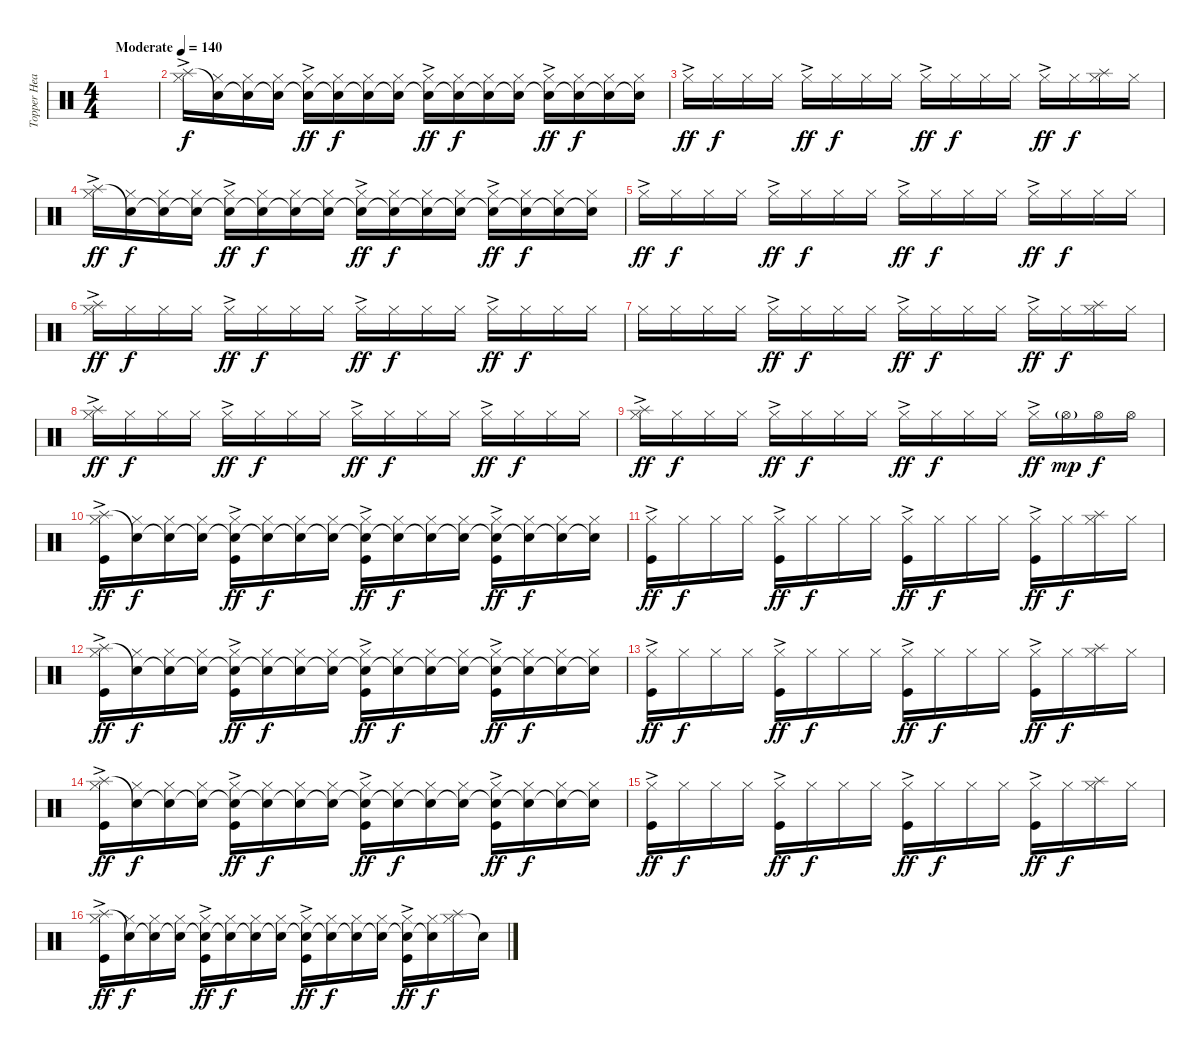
\track ("Topper Headon" "Topper Hea") {instrument percussion}
\staff {score}
\articulation defaults
\ts (4 4)
\tempo (140 "Moderate")
\clef neutral
\ks c
|
("Hi-Hat (closed)"{ac} "Splash (hit)").16 ("Hi-Hat (closed)" "Snare (hit)"{t}).16{dy f} ("Hi-Hat (closed)" "Snare (hit)"{t}).16 ("Hi-Hat (closed)" "Snare (hit)"{t}).16 ("Hi-Hat (closed)"{ac} "Snare (hit)"{t}).16{dy ff} ("Hi-Hat (closed)" "Snare (hit)"{t}).16{dy f} ("Hi-Hat (closed)" "Snare (hit)"{t}).16 ("Hi-Hat (closed)" "Snare (hit)"{t}).16 ("Hi-Hat (closed)"{ac} "Snare (hit)"{t}).16{dy ff} ("Hi-Hat (closed)" "Snare (hit)"{t}).16{dy f} ("Hi-Hat (closed)" "Snare (hit)"{t}).16 ("Hi-Hat (closed)" "Snare (hit)"{t}).16 ("Hi-Hat (closed)"{ac} "Snare (hit)"{t}).16{dy ff} ("Hi-Hat (closed)" "Snare (hit)"{t}).16{dy f} ("Hi-Hat (closed)" "Snare (hit)"{t}).16 ("Hi-Hat (closed)" "Snare (hit)"{t}).16 |
"Hi-Hat (closed)"{ac}.16{dy ff} "Hi-Hat (closed)".16{dy f} "Hi-Hat (closed)".16 "Hi-Hat (closed)".16 "Hi-Hat (closed)"{ac}.16{dy ff} "Hi-Hat (closed)".16{dy f} "Hi-Hat (closed)".16 "Hi-Hat (closed)".16 "Hi-Hat (closed)"{ac}.16{dy ff} "Hi-Hat (closed)".16{dy f} "Hi-Hat (closed)".16 "Hi-Hat (closed)".16 "Hi-Hat (closed)"{ac}.16{dy ff} "Hi-Hat (closed)".16{dy f} ("Hi-Hat (closed)" "Splash (hit)").16 "Hi-Hat (closed)".16 |
("Hi-Hat (closed)"{ac} "Splash (hit)").16{dy ff} ("Hi-Hat (closed)" "Snare (hit)"{t}).16{dy f} ("Hi-Hat (closed)" "Snare (hit)"{t}).16 ("Hi-Hat (closed)" "Snare (hit)"{t}).16 ("Hi-Hat (closed)"{ac} "Snare (hit)"{t}).16{dy ff} ("Hi-Hat (closed)" "Snare (hit)"{t}).16{dy f} ("Hi-Hat (closed)" "Snare (hit)"{t}).16 ("Hi-Hat (closed)" "Snare (hit)"{t}).16 ("Hi-Hat (closed)"{ac} "Snare (hit)"{t}).16{dy ff} ("Hi-Hat (closed)" "Snare (hit)"{t}).16{dy f} ("Hi-Hat (closed)" "Snare (hit)"{t}).16 ("Hi-Hat (closed)" "Snare (hit)"{t}).16 ("Hi-Hat (closed)"{ac} "Snare (hit)"{t}).16{dy ff} ("Hi-Hat (closed)" "Snare (hit)"{t}).16{dy f} ("Hi-Hat (closed)" "Snare (hit)"{t}).16 ("Hi-Hat (closed)" "Snare (hit)"{t}).16 |
"Hi-Hat (closed)"{ac}.16{dy ff} "Hi-Hat (closed)".16{dy f} "Hi-Hat (closed)".16 "Hi-Hat (closed)".16 "Hi-Hat (closed)"{ac}.16{dy ff} "Hi-Hat (closed)".16{dy f} "Hi-Hat (closed)".16 "Hi-Hat (closed)".16 "Hi-Hat (closed)"{ac}.16{dy ff} "Hi-Hat (closed)".16{dy f} "Hi-Hat (closed)".16 "Hi-Hat (closed)".16 "Hi-Hat (closed)"{ac}.16{dy ff} "Hi-Hat (closed)".16{dy f} "Hi-Hat (closed)".16 "Hi-Hat (closed)".16 |
("Hi-Hat (closed)"{ac} "Splash (hit)").16{dy ff} "Hi-Hat (closed)".16{dy f} "Hi-Hat (closed)".16 "Hi-Hat (closed)".16 "Hi-Hat (closed)"{ac}.16{dy ff} "Hi-Hat (closed)".16{dy f} "Hi-Hat (closed)".16 "Hi-Hat (closed)".16 "Hi-Hat (closed)"{ac}.16{dy ff} "Hi-Hat (closed)".16{dy f} "Hi-Hat (closed)".16 "Hi-Hat (closed)".16 "Hi-Hat (closed)"{ac}.16{dy ff} "Hi-Hat (closed)".16{dy f} "Hi-Hat (closed)".16 "Hi-Hat (closed)".16 |
"Hi-Hat (closed)".16 "Hi-Hat (closed)".16 "Hi-Hat (closed)".16 "Hi-Hat (closed)".16 "Hi-Hat (closed)"{ac}.16{dy ff} "Hi-Hat (closed)".16{dy f} "Hi-Hat (closed)".16 "Hi-Hat (closed)".16 "Hi-Hat (closed)"{ac}.16{dy ff} "Hi-Hat (closed)".16{dy f} "Hi-Hat (closed)".16 "Hi-Hat (closed)".16 "Hi-Hat (closed)"{ac}.16{dy ff} "Hi-Hat (closed)".16{dy f} ("Hi-Hat (closed)" "Splash (hit)").16 "Hi-Hat (closed)".16 |
("Hi-Hat (closed)"{ac} "Splash (hit)").16{dy ff} "Hi-Hat (closed)".16{dy f} "Hi-Hat (closed)".16 "Hi-Hat (closed)".16 "Hi-Hat (closed)"{ac}.16{dy ff} "Hi-Hat (closed)".16{dy f} "Hi-Hat (closed)".16 "Hi-Hat (closed)".16 "Hi-Hat (closed)"{ac}.16{dy ff} "Hi-Hat (closed)".16{dy f} "Hi-Hat (closed)".16 "Hi-Hat (closed)".16 "Hi-Hat (closed)"{ac}.16{dy ff} "Hi-Hat (closed)".16{dy f} "Hi-Hat (closed)".16 "Hi-Hat (closed)".16 |
("Hi-Hat (closed)"{ac} "Splash (hit)").16{dy ff} "Hi-Hat (closed)".16{dy f} "Hi-Hat (closed)".16 "Hi-Hat (closed)".16 "Hi-Hat (closed)"{ac}.16{dy ff} "Hi-Hat (closed)".16{dy f} "Hi-Hat (closed)".16 "Hi-Hat (closed)".16 "Hi-Hat (closed)"{ac}.16{dy ff} "Hi-Hat (closed)".16{dy f} "Hi-Hat (closed)".16 "Hi-Hat (closed)".16 "Hi-Hat (closed)"{ac}.16{dy ff} "Hi-Hat (open)"{g}.16{dy mp} "Hi-Hat (open)".16{dy f} "Hi-Hat (open)".16 |
("Hi-Hat (closed)"{ac} "Splash (hit)" "Kick (hit)"{ac}).16{dy ff} ("Hi-Hat (closed)" "Snare (hit)"{t}).16{dy f} ("Hi-Hat (closed)" "Snare (hit)"{t}).16 ("Hi-Hat (closed)" "Snare (hit)"{t}).16 ("Hi-Hat (closed)"{ac} "Snare (hit)"{t} "Kick (hit)"{ac}).16{dy ff} ("Hi-Hat (closed)" "Snare (hit)"{t}).16{dy f} ("Hi-Hat (closed)" "Snare (hit)"{t}).16 ("Hi-Hat (closed)" "Snare (hit)"{t}).16 ("Hi-Hat (closed)"{ac} "Snare (hit)"{t} "Kick (hit)"{ac}).16{dy ff} ("Hi-Hat (closed)" "Snare (hit)"{t}).16{dy f} ("Hi-Hat (closed)" "Snare (hit)"{t}).16 ("Hi-Hat (closed)" "Snare (hit)"{t}).16 ("Hi-Hat (closed)"{ac} "Snare (hit)"{t} "Kick (hit)"{ac}).16{dy ff} ("Hi-Hat (closed)" "Snare (hit)"{t}).16{dy f} ("Hi-Hat (closed)" "Snare (hit)"{t}).16 ("Hi-Hat (closed)" "Snare (hit)"{t}).16 |
("Hi-Hat (closed)"{ac} "Kick (hit)"{ac}).16{dy ff} "Hi-Hat (closed)".16{dy f} "Hi-Hat (closed)".16 "Hi-Hat (closed)".16 ("Hi-Hat (closed)"{ac} "Kick (hit)"{ac}).16{dy ff} "Hi-Hat (closed)".16{dy f} "Hi-Hat (closed)".16 "Hi-Hat (closed)".16 ("Hi-Hat (closed)"{ac} "Kick (hit)"{ac}).16{dy ff} "Hi-Hat (closed)".16{dy f} "Hi-Hat (closed)".16 "Hi-Hat (closed)".16 ("Hi-Hat (closed)"{ac} "Kick (hit)"{ac}).16{dy ff} "Hi-Hat (closed)".16{dy f} ("Hi-Hat (closed)" "Splash (hit)").16 "Hi-Hat (closed)".16 |
("Hi-Hat (closed)"{ac} "Splash (hit)" "Kick (hit)"{ac}).16{dy ff} ("Hi-Hat (closed)" "Snare (hit)"{t}).16{dy f} ("Hi-Hat (closed)" "Snare (hit)"{t}).16 ("Hi-Hat (closed)" "Snare (hit)"{t}).16 ("Hi-Hat (closed)"{ac} "Snare (hit)"{t} "Kick (hit)"{ac}).16{dy ff} ("Hi-Hat (closed)" "Snare (hit)"{t}).16{dy f} ("Hi-Hat (closed)" "Snare (hit)"{t}).16 ("Hi-Hat (closed)" "Snare (hit)"{t}).16 ("Hi-Hat (closed)"{ac} "Snare (hit)"{t} "Kick (hit)"{ac}).16{dy ff} ("Hi-Hat (closed)" "Snare (hit)"{t}).16{dy f} ("Hi-Hat (closed)" "Snare (hit)"{t}).16 ("Hi-Hat (closed)" "Snare (hit)"{t}).16 ("Hi-Hat (closed)"{ac} "Snare (hit)"{t} "Kick (hit)"{ac}).16{dy ff} ("Hi-Hat (closed)" "Snare (hit)"{t}).16{dy f} ("Hi-Hat (closed)" "Snare (hit)"{t}).16 ("Hi-Hat (closed)" "Snare (hit)"{t}).16 |
("Hi-Hat (closed)"{ac} "Kick (hit)"{ac}).16{dy ff} "Hi-Hat (closed)".16{dy f} "Hi-Hat (closed)".16 "Hi-Hat (closed)".16 ("Hi-Hat (closed)"{ac} "Kick (hit)"{ac}).16{dy ff} "Hi-Hat (closed)".16{dy f} "Hi-Hat (closed)".16 "Hi-Hat (closed)".16 ("Hi-Hat (closed)"{ac} "Kick (hit)"{ac}).16{dy ff} "Hi-Hat (closed)".16{dy f} "Hi-Hat (closed)".16 "Hi-Hat (closed)".16 ("Hi-Hat (closed)"{ac} "Kick (hit)"{ac}).16{dy ff} "Hi-Hat (closed)".16{dy f} ("Hi-Hat (closed)" "Splash (hit)").16 "Hi-Hat (closed)".16 |
("Hi-Hat (closed)"{ac} "Splash (hit)" "Kick (hit)"{ac}).16{dy ff} ("Hi-Hat (closed)" "Snare (hit)"{t}).16{dy f} ("Hi-Hat (closed)" "Snare (hit)"{t}).16 ("Hi-Hat (closed)" "Snare (hit)"{t}).16 ("Hi-Hat (closed)"{ac} "Snare (hit)"{t} "Kick (hit)"{ac}).16{dy ff} ("Hi-Hat (closed)" "Snare (hit)"{t}).16{dy f} ("Hi-Hat (closed)" "Snare (hit)"{t}).16 ("Hi-Hat (closed)" "Snare (hit)"{t}).16 ("Hi-Hat (closed)"{ac} "Snare (hit)"{t} "Kick (hit)"{ac}).16{dy ff} ("Hi-Hat (closed)" "Snare (hit)"{t}).16{dy f} ("Hi-Hat (closed)" "Snare (hit)"{t}).16 ("Hi-Hat (closed)" "Snare (hit)"{t}).16 ("Hi-Hat (closed)"{ac} "Snare (hit)"{t} "Kick (hit)"{ac}).16{dy ff} ("Hi-Hat (closed)" "Snare (hit)"{t}).16{dy f} ("Hi-Hat (closed)" "Snare (hit)"{t}).16 ("Hi-Hat (closed)" "Snare (hit)"{t}).16 |
("Hi-Hat (closed)"{ac} "Kick (hit)"{ac}).16{dy ff} "Hi-Hat (closed)".16{dy f} "Hi-Hat (closed)".16 "Hi-Hat (closed)".16 ("Hi-Hat (closed)"{ac} "Kick (hit)"{ac}).16{dy ff} "Hi-Hat (closed)".16{dy f} "Hi-Hat (closed)".16 "Hi-Hat (closed)".16 ("Hi-Hat (closed)"{ac} "Kick (hit)"{ac}).16{dy ff} "Hi-Hat (closed)".16{dy f} "Hi-Hat (closed)".16 "Hi-Hat (closed)".16 ("Hi-Hat (closed)"{ac} "Kick (hit)"{ac}).16{dy ff} "Hi-Hat (closed)".16{dy f} ("Hi-Hat (closed)" "Splash (hit)").16 "Hi-Hat (closed)".16 |
("Hi-Hat (closed)"{ac} "Splash (hit)" "Kick (hit)"{ac}).16{dy ff} ("Hi-Hat (closed)" "Snare (hit)"{t}).16{dy f} ("Hi-Hat (closed)" "Snare (hit)"{t}).16 ("Hi-Hat (closed)" "Snare (hit)"{t}).16 ("Hi-Hat (closed)"{ac} "Snare (hit)"{t} "Kick (hit)"{ac}).16{dy ff} ("Hi-Hat (closed)" "Snare (hit)"{t}).16{dy f} ("Hi-Hat (closed)" "Snare (hit)"{t}).16 ("Hi-Hat (closed)" "Snare (hit)"{t}).16 ("Hi-Hat (closed)"{ac} "Snare (hit)"{t} "Kick (hit)"{ac}).16{dy ff} ("Hi-Hat (closed)" "Snare (hit)"{t}).16{dy f} ("Hi-Hat (closed)" "Snare (hit)"{t}).16 ("Hi-Hat (closed)" "Snare (hit)"{t}).16 ("Hi-Hat (closed)"{ac} "Snare (hit)"{t} "Kick (hit)"{ac}).16{dy ff} ("Hi-Hat (closed)" "Snare (hit)"{t}).16{dy f} ("Hi-Hat (closed)" "Splash (hit)").16 "Snare (hit)"{t}.16
